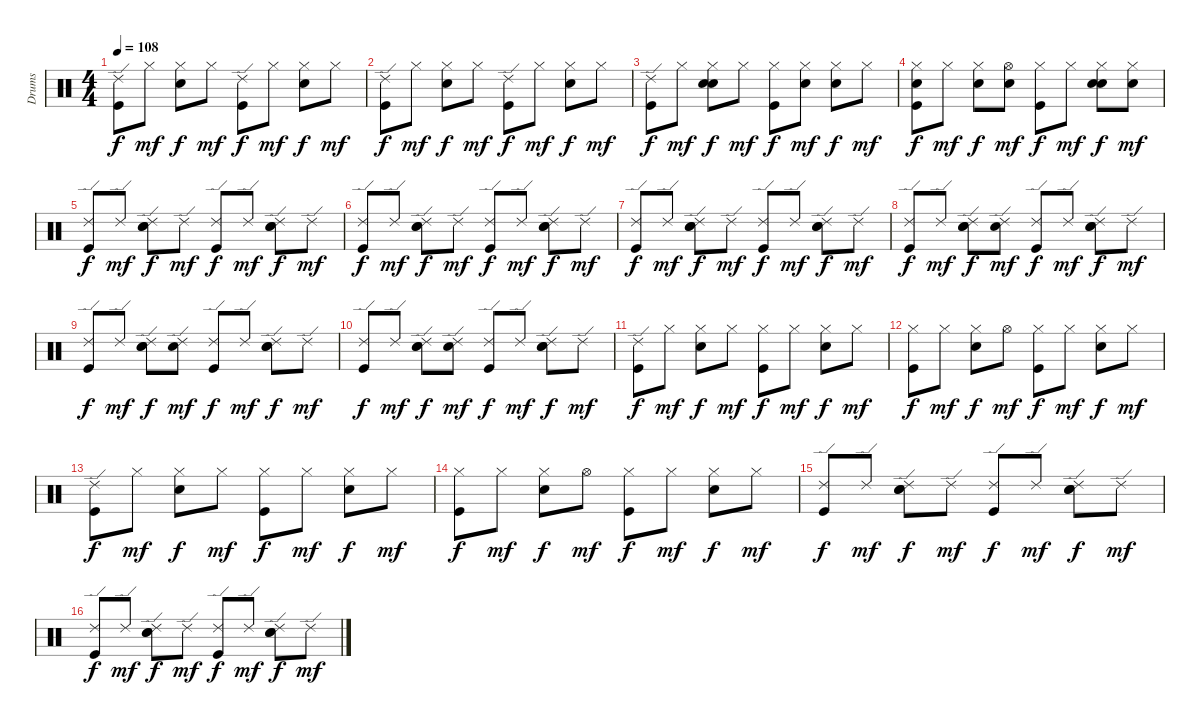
\track ("Drums" "Drums") {instrument percussion}
\staff {score}
\articulation defaults
\ts (4 4)
\tempo 108
\clef neutral
\ks c
("Ride (edge) 2" "Kick (hit)").8{dy f} "Hi-Hat (closed)".8{dy mf} ("Hi-Hat (closed)" "Electric Snare (hit)").8{dy f} "Hi-Hat (closed)".8{dy mf} ("Ride (edge) 2" "Kick (hit)").8{dy f} "Hi-Hat (closed)".8{dy mf} ("Hi-Hat (closed)" "Electric Snare (hit)").8{dy f} "Hi-Hat (closed)".8{dy mf} |
("Ride (edge) 2" "Kick (hit)").8{dy f} "Hi-Hat (closed)".8{dy mf} ("Hi-Hat (closed)" "Electric Snare (hit)").8{dy f} "Hi-Hat (closed)".8{dy mf} ("Ride (edge) 2" "Kick (hit)").8{dy f} "Hi-Hat (closed)".8{dy mf} ("Hi-Hat (closed)" "Electric Snare (hit)").8{dy f} "Hi-Hat (closed)".8{dy mf} |
("Ride (edge) 2" "Kick (hit)").8{dy f} "Hi-Hat (closed)".8{dy mf} ("Hand Clap (hit)" "Hi-Hat (closed)" "Electric Snare (hit)").8{dy f} "Hi-Hat (closed)".8{dy mf} ("Hi-Hat (closed)" "Kick (hit)").8{dy f} ("Hand Clap (hit)" "Hi-Hat (closed)").8{dy mf} ("Hi-Hat (closed)" "Electric Snare (hit)").8{dy f} "Hi-Hat (closed)".8{dy mf} |
("Hand Clap (hit)" "Hi-Hat (closed)" "Kick (hit)").8{dy f} "Hi-Hat (closed)".8{dy mf} ("Hi-Hat (closed)" "Electric Snare (hit)").8{dy f} ("Hand Clap (hit)" "Hi-Hat (open)").8{dy mf} ("Hi-Hat (closed)" "Kick (hit)").8{dy f} "Hi-Hat (closed)".8{dy mf} ("Hand Clap (hit)" "Hi-Hat (closed)" "Electric Snare (hit)").8{dy f} ("Hand Clap (hit)" "Hi-Hat (closed)").8{dy mf} |
("Ride (edge) 2" "Kick (hit)").8{dy f} "Ride (edge) 2".8{dy mf} ("Ride (edge) 2" "Hand Clap (hit)" "Electric Snare (hit)").8{dy f} "Ride (edge) 2".8{dy mf} ("Ride (edge) 2" "Kick (hit)").8{dy f} "Ride (edge) 2".8{dy mf} ("Ride (edge) 2" "Hand Clap (hit)" "Electric Snare (hit)").8{dy f} "Ride (edge) 2".8{dy mf} |
("Ride (edge) 2" "Kick (hit)").8{dy f} "Ride (edge) 2".8{dy mf} ("Ride (edge) 2" "Hand Clap (hit)" "Electric Snare (hit)").8{dy f} "Ride (edge) 2".8{dy mf} ("Ride (edge) 2" "Kick (hit)").8{dy f} "Ride (edge) 2".8{dy mf} ("Ride (edge) 2" "Hand Clap (hit)" "Electric Snare (hit)").8{dy f} "Ride (edge) 2".8{dy mf} |
("Ride (edge) 2" "Kick (hit)").8{dy f} "Ride (edge) 2".8{dy mf} ("Ride (edge) 2" "Hand Clap (hit)" "Electric Snare (hit)").8{dy f} "Ride (edge) 2".8{dy mf} ("Ride (edge) 2" "Kick (hit)").8{dy f} "Ride (edge) 2".8{dy mf} ("Ride (edge) 2" "Hand Clap (hit)" "Electric Snare (hit)").8{dy f} "Ride (edge) 2".8{dy mf} |
("Ride (edge) 2" "Kick (hit)").8{dy f} "Ride (edge) 2".8{dy mf} ("Ride (edge) 2" "Hand Clap (hit)" "Electric Snare (hit)").8{dy f} ("Ride (edge) 2" "Hand Clap (hit)").8{dy mf} ("Ride (edge) 2" "Kick (hit)").8{dy f} "Ride (edge) 2".8{dy mf} ("Ride (edge) 2" "Hand Clap (hit)" "Electric Snare (hit)").8{dy f} "Ride (edge) 2".8{dy mf} |
("Ride (edge) 2" "Kick (hit)").8{dy f} "Ride (edge) 2".8{dy mf} ("Ride (edge) 2" "Hand Clap (hit)" "Electric Snare (hit)").8{dy f} ("Ride (edge) 2" "Hand Clap (hit)").8{dy mf} ("Ride (edge) 2" "Kick (hit)").8{dy f} "Ride (edge) 2".8{dy mf} ("Ride (edge) 2" "Hand Clap (hit)" "Electric Snare (hit)").8{dy f} "Ride (edge) 2".8{dy mf} |
("Ride (edge) 2" "Kick (hit)").8{dy f} "Ride (edge) 2".8{dy mf} ("Ride (edge) 2" "Hand Clap (hit)" "Electric Snare (hit)").8{dy f} ("Ride (edge) 2" "Hand Clap (hit)").8{dy mf} ("Ride (edge) 2" "Kick (hit)").8{dy f} "Ride (edge) 2".8{dy mf} ("Ride (edge) 2" "Hand Clap (hit)" "Electric Snare (hit)").8{dy f} "Ride (edge) 2".8{dy mf} |
("Ride (edge) 2" "Kick (hit)").8{dy f} "Hi-Hat (closed)".8{dy mf} ("Hi-Hat (closed)" "Electric Snare (hit)").8{dy f} "Hi-Hat (closed)".8{dy mf} ("Hi-Hat (closed)" "Kick (hit)").8{dy f} "Hi-Hat (closed)".8{dy mf} ("Hi-Hat (closed)" "Electric Snare (hit)").8{dy f} "Hi-Hat (closed)".8{dy mf} |
("Hi-Hat (closed)" "Kick (hit)").8{dy f} "Hi-Hat (closed)".8{dy mf} ("Hi-Hat (closed)" "Electric Snare (hit)").8{dy f} "Hi-Hat (open)".8{dy mf} ("Hi-Hat (closed)" "Kick (hit)").8{dy f} "Hi-Hat (closed)".8{dy mf} ("Hi-Hat (closed)" "Electric Snare (hit)").8{dy f} "Hi-Hat (closed)".8{dy mf} |
("Ride (edge) 2" "Kick (hit)").8{dy f} "Hi-Hat (closed)".8{dy mf} ("Hi-Hat (closed)" "Electric Snare (hit)").8{dy f} "Hi-Hat (closed)".8{dy mf} ("Hi-Hat (closed)" "Kick (hit)").8{dy f} "Hi-Hat (closed)".8{dy mf} ("Hi-Hat (closed)" "Electric Snare (hit)").8{dy f} "Hi-Hat (closed)".8{dy mf} |
("Hi-Hat (closed)" "Kick (hit)").8{dy f} "Hi-Hat (closed)".8{dy mf} ("Hi-Hat (closed)" "Electric Snare (hit)").8{dy f} "Hi-Hat (open)".8{dy mf} ("Hi-Hat (closed)" "Kick (hit)").8{dy f} "Hi-Hat (closed)".8{dy mf} ("Hi-Hat (closed)" "Electric Snare (hit)").8{dy f} "Hi-Hat (closed)".8{dy mf} |
("Ride (edge) 2" "Kick (hit)").8{dy f} "Ride (edge) 2".8{dy mf} ("Ride (edge) 2" "Hand Clap (hit)" "Electric Snare (hit)").8{dy f} "Ride (edge) 2".8{dy mf} ("Ride (edge) 2" "Kick (hit)").8{dy f} "Ride (edge) 2".8{dy mf} ("Ride (edge) 2" "Hand Clap (hit)" "Electric Snare (hit)").8{dy f} "Ride (edge) 2".8{dy mf} |
("Ride (edge) 2" "Kick (hit)").8{dy f} "Ride (edge) 2".8{dy mf} ("Ride (edge) 2" "Hand Clap (hit)" "Electric Snare (hit)").8{dy f} "Ride (edge) 2".8{dy mf} ("Ride (edge) 2" "Kick (hit)").8{dy f} "Ride (edge) 2".8{dy mf} ("Ride (edge) 2" "Hand Clap (hit)" "Electric Snare (hit)").8{dy f} "Ride (edge) 2".8{dy mf}
